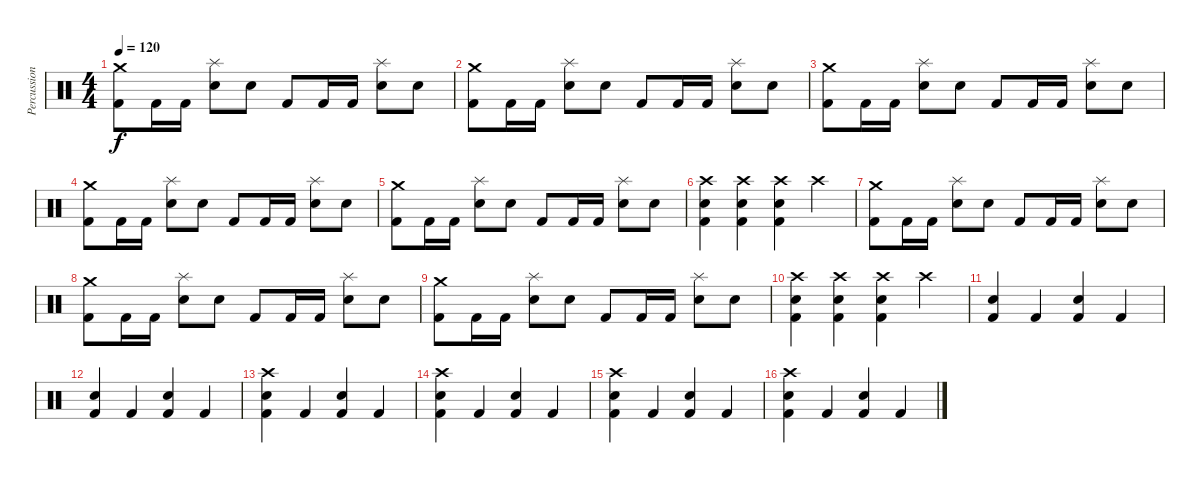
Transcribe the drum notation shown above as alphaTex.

\track ("Percussion" "Percussion") {instrument percussion}
\staff {score}
\articulation defaults
\ts (4 4)
\tempo 120
\clef neutral
\ks c
("Kick (hit) 2" "Crash medium (hit)").8{dy f} "Kick (hit) 2".16 "Kick (hit) 2".16 ("Snare (hit) 2" "Splash (hit)").8 "Snare (hit) 2".8 "Kick (hit) 2".8 "Kick (hit) 2".16 "Kick (hit) 2".16 ("Snare (hit) 2" "Splash (hit)").8 "Snare (hit) 2".8 |
("Kick (hit) 2" "Crash medium (hit)").8 "Kick (hit) 2".16 "Kick (hit) 2".16 ("Snare (hit) 2" "Splash (hit)").8 "Snare (hit) 2".8 "Kick (hit) 2".8 "Kick (hit) 2".16 "Kick (hit) 2".16 ("Snare (hit) 2" "Splash (hit)").8 "Snare (hit) 2".8 |
("Kick (hit) 2" "Crash medium (hit)").8 "Kick (hit) 2".16 "Kick (hit) 2".16 ("Snare (hit) 2" "Splash (hit)").8 "Snare (hit) 2".8 "Kick (hit) 2".8 "Kick (hit) 2".16 "Kick (hit) 2".16 ("Snare (hit) 2" "Splash (hit)").8 "Snare (hit) 2".8 |
("Kick (hit) 2" "Crash medium (hit)").8 "Kick (hit) 2".16 "Kick (hit) 2".16 ("Snare (hit) 2" "Splash (hit)").8 "Snare (hit) 2".8 "Kick (hit) 2".8 "Kick (hit) 2".16 "Kick (hit) 2".16 ("Snare (hit) 2" "Splash (hit)").8 "Snare (hit) 2".8 |
("Kick (hit) 2" "Crash medium (hit)").8 "Kick (hit) 2".16 "Kick (hit) 2".16 ("Snare (hit) 2" "Splash (hit)").8 "Snare (hit) 2".8 "Kick (hit) 2".8 "Kick (hit) 2".16 "Kick (hit) 2".16 ("Snare (hit) 2" "Splash (hit)").8 "Snare (hit) 2".8 |
("Electric Snare (hit)" "Kick (hit) 2" "Crash high (hit)").4 ("Electric Snare (hit)" "Kick (hit) 2" "Crash high (hit)").4 ("Electric Snare (hit)" "Kick (hit) 2" "Crash high (hit)").4 "Crash high (hit)".4 |
("Kick (hit) 2" "Crash medium (hit)").8 "Kick (hit) 2".16 "Kick (hit) 2".16 ("Snare (hit) 2" "Splash (hit)").8 "Snare (hit) 2".8 "Kick (hit) 2".8 "Kick (hit) 2".16 "Kick (hit) 2".16 ("Snare (hit) 2" "Splash (hit)").8 "Snare (hit) 2".8 |
("Kick (hit) 2" "Crash medium (hit)").8 "Kick (hit) 2".16 "Kick (hit) 2".16 ("Snare (hit) 2" "Splash (hit)").8 "Snare (hit) 2".8 "Kick (hit) 2".8 "Kick (hit) 2".16 "Kick (hit) 2".16 ("Snare (hit) 2" "Splash (hit)").8 "Snare (hit) 2".8 |
("Kick (hit) 2" "Crash medium (hit)").8 "Kick (hit) 2".16 "Kick (hit) 2".16 ("Snare (hit) 2" "Splash (hit)").8 "Snare (hit) 2".8 "Kick (hit) 2".8 "Kick (hit) 2".16 "Kick (hit) 2".16 ("Snare (hit) 2" "Splash (hit)").8 "Snare (hit) 2".8 |
("Electric Snare (hit)" "Kick (hit) 2" "Crash high (hit)").4 ("Electric Snare (hit)" "Kick (hit) 2" "Crash high (hit)").4 ("Electric Snare (hit)" "Kick (hit) 2" "Crash high (hit)").4 "Crash high (hit)".4 |
("Kick (hit) 2" "Electric Snare (hit)").4 "Kick (hit) 2".4 ("Kick (hit) 2" "Electric Snare (hit)").4 "Kick (hit) 2".4 |
("Kick (hit) 2" "Electric Snare (hit)").4 "Kick (hit) 2".4 ("Kick (hit) 2" "Electric Snare (hit)").4 "Kick (hit) 2".4 |
("Kick (hit) 2" "Electric Snare (hit)" "Crash high (hit)").4 "Kick (hit) 2".4 ("Kick (hit) 2" "Electric Snare (hit)").4 "Kick (hit) 2".4 |
("Kick (hit) 2" "Electric Snare (hit)" "Crash high (hit)").4 "Kick (hit) 2".4 ("Kick (hit) 2" "Electric Snare (hit)").4 "Kick (hit) 2".4 |
("Kick (hit) 2" "Electric Snare (hit)" "Crash high (hit)").4 "Kick (hit) 2".4 ("Kick (hit) 2" "Electric Snare (hit)").4 "Kick (hit) 2".4 |
("Kick (hit) 2" "Electric Snare (hit)" "Crash high (hit)").4 "Kick (hit) 2".4 ("Kick (hit) 2" "Electric Snare (hit)").4 "Kick (hit) 2".4
